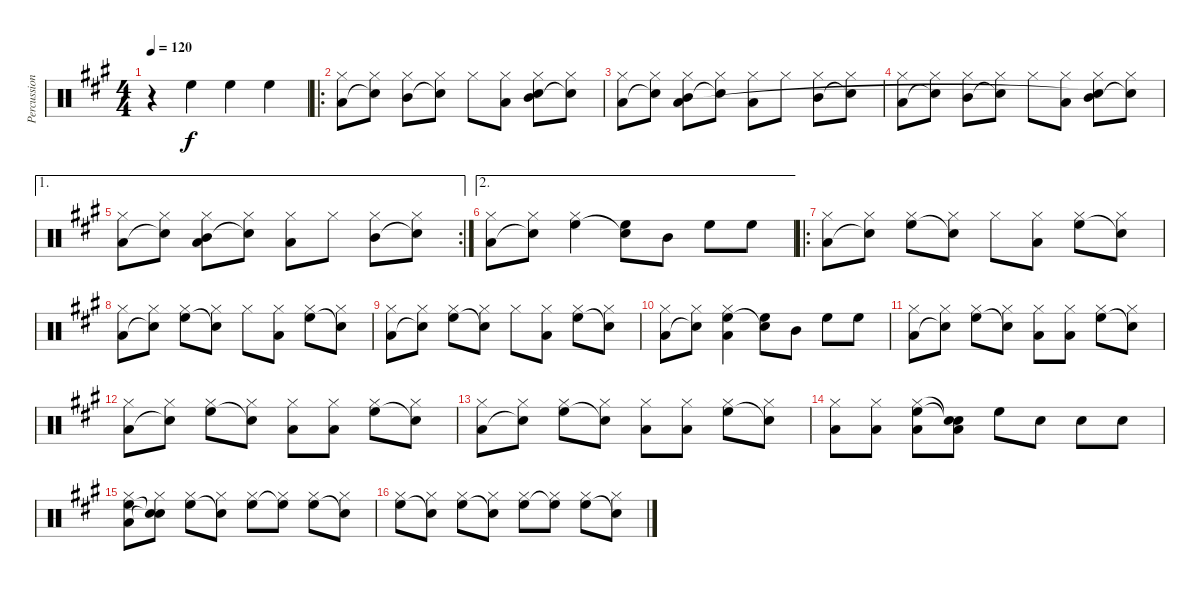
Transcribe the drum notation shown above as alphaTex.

\track ("Percussion" "Percussion") {instrument percussion}
\staff {score}
\articulation defaults
\ts (4 4)
\tempo 120
\clef neutral
\ks a
r.4{dy f} "High Floor Tom (hit)".4 "High Floor Tom (hit)".4 "High Floor Tom (hit)".4 |
\ro
("Hi-Hat (closed)" "Low Floor Tom (hit)").8 ("Hi-Hat (closed)" "Snare (hit)"{t}).8 ("Hi-Hat (closed)" "Mid Tom (hit)").8 ("Hi-Hat (closed)" "Snare (hit)"{t}).8 "Hi-Hat (closed)".8 ("Hi-Hat (closed)" "Low Floor Tom (hit)").8 ("Hi-Hat (closed)" "Mid Tom (hit)" "Snare (hit)").8 ("Hi-Hat (closed)" "Snare (hit)"{t}).8 |
("Hi-Hat (closed)" "Low Floor Tom (hit)").8 ("Hi-Hat (closed)" "Snare (hit)"{t}).8 ("Hi-Hat (closed)" "Mid Tom (hit)" "Low Floor Tom (hit)").8 ("Hi-Hat (closed)" "Snare (hit)"{t}).8 ("Hi-Hat (closed)" "Low Floor Tom (hit)").8 "Hi-Hat (closed)".8 ("Hi-Hat (closed)" "Mid Tom (hit)").8 ("Hi-Hat (closed)" "Snare (hit)"{t}).8 |
("Hi-Hat (closed)" "Low Floor Tom (hit)").8 ("Hi-Hat (closed)" "Snare (hit)"{t}).8 ("Hi-Hat (closed)" "Mid Tom (hit)").8 ("Hi-Hat (closed)" "Snare (hit)"{t}).8 "Hi-Hat (closed)".8 ("Hi-Hat (closed)" "Low Floor Tom (hit)").8 ("Hi-Hat (closed)" "Mid Tom (hit)" "Snare (hit)"{t}).8 ("Hi-Hat (closed)" "Snare (hit)"{t}).8 |
\ae 1
\rc 2
("Hi-Hat (closed)" "Low Floor Tom (hit)").8 ("Hi-Hat (closed)" "Snare (hit)"{t}).8 ("Hi-Hat (closed)" "Mid Tom (hit)" "Low Floor Tom (hit)").8 ("Hi-Hat (closed)" "Snare (hit)"{t}).8 ("Hi-Hat (closed)" "Low Floor Tom (hit)").8 "Hi-Hat (closed)".8 ("Hi-Hat (closed)" "Mid Tom (hit)").8 ("Hi-Hat (closed)" "Snare (hit)"{t}).8 |
\ae 2
("Hi-Hat (closed)" "Low Floor Tom (hit)").8 ("Hi-Hat (closed)" "Snare (hit)"{t}).8 ("Hi-Hat (closed)" "High Floor Tom (hit)").4 ("High Floor Tom (hit)" "Snare (hit)"{t}).8 "Mid Tom (hit)".8 "High Floor Tom (hit)".8 "High Floor Tom (hit)".8 |
\ro
("Hi-Hat (closed)" "Low Floor Tom (hit)").8 ("Hi-Hat (closed)" "Snare (hit)"{t}).8 ("Hi-Hat (closed)" "High Floor Tom (hit)").8 ("Hi-Hat (closed)" "Snare (hit)"{t}).8 "Hi-Hat (closed)".8 ("Hi-Hat (closed)" "Low Floor Tom (hit)").8 ("Hi-Hat (closed)" "High Floor Tom (hit)").8 ("Hi-Hat (closed)" "Snare (hit)"{t}).8 |
("Hi-Hat (closed)" "Low Floor Tom (hit)").8 ("Hi-Hat (closed)" "Snare (hit)"{t}).8 ("Hi-Hat (closed)" "High Floor Tom (hit)").8 ("Hi-Hat (closed)" "Snare (hit)"{t}).8 "Hi-Hat (closed)".8 ("Hi-Hat (closed)" "Low Floor Tom (hit)").8 ("Hi-Hat (closed)" "High Floor Tom (hit)").8 ("Hi-Hat (closed)" "Snare (hit)"{t}).8 |
("Hi-Hat (closed)" "Low Floor Tom (hit)").8 ("Hi-Hat (closed)" "Snare (hit)"{t}).8 ("Hi-Hat (closed)" "High Floor Tom (hit)").8 ("Hi-Hat (closed)" "Snare (hit)"{t}).8 "Hi-Hat (closed)".8 ("Hi-Hat (closed)" "Low Floor Tom (hit)").8 ("Hi-Hat (closed)" "High Floor Tom (hit)").8 ("Hi-Hat (closed)" "Snare (hit)"{t}).8 |
("Hi-Hat (closed)" "Low Floor Tom (hit)").8 ("Hi-Hat (closed)" "Snare (hit)"{t}).8 ("Hi-Hat (closed)" "High Floor Tom (hit)" "Low Floor Tom (hit)").4 ("High Floor Tom (hit)" "Snare (hit)"{t}).8 "Mid Tom (hit)".8 "High Floor Tom (hit)".8 "High Floor Tom (hit)".8 |
("Hi-Hat (closed)" "Low Floor Tom (hit)").8 ("Hi-Hat (closed)" "Snare (hit)"{t}).8 ("Hi-Hat (closed)" "High Floor Tom (hit)").8 ("Hi-Hat (closed)" "Snare (hit)"{t}).8 ("Hi-Hat (closed)" "Low Floor Tom (hit)").8 ("Hi-Hat (closed)" "Low Floor Tom (hit)").8 ("Hi-Hat (closed)" "High Floor Tom (hit)").8 ("Hi-Hat (closed)" "Snare (hit)"{t}).8 |
("Hi-Hat (closed)" "Low Floor Tom (hit)").8 ("Hi-Hat (closed)" "Snare (hit)"{t}).8 ("Hi-Hat (closed)" "High Floor Tom (hit)").8 ("Hi-Hat (closed)" "Snare (hit)"{t}).8 ("Hi-Hat (closed)" "Low Floor Tom (hit)").8 ("Hi-Hat (closed)" "Low Floor Tom (hit)").8 ("Hi-Hat (closed)" "High Floor Tom (hit)").8 ("Hi-Hat (closed)" "Snare (hit)"{t}).8 |
("Hi-Hat (closed)" "Low Floor Tom (hit)").8 ("Hi-Hat (closed)" "Snare (hit)"{t}).8 ("Hi-Hat (closed)" "High Floor Tom (hit)").8 ("Hi-Hat (closed)" "Snare (hit)"{t}).8 ("Hi-Hat (closed)" "Low Floor Tom (hit)").8 ("Hi-Hat (closed)" "Low Floor Tom (hit)").8 ("Hi-Hat (closed)" "High Floor Tom (hit)").8 ("Hi-Hat (closed)" "Snare (hit)"{t}).8 |
("Hi-Hat (closed)" "Low Floor Tom (hit)").8 ("Hi-Hat (closed)" "Low Floor Tom (hit)").8 ("Hi-Hat (closed)" "High Floor Tom (hit)" "Low Floor Tom (hit)").8 ("Snare (hit)"{t} "Snare (hit)"{t} "Low Floor Tom (hit)").8 "High Floor Tom (hit)".8 "Snare (hit) 2".8 "Snare (hit) 2".8 "Snare (hit) 2".8 |
("Hi-Hat (closed)" "High Floor Tom (hit)" "Low Floor Tom (hit)").8 ("Hi-Hat (closed)" "Snare (hit)"{t} "Snare (hit)"{t}).8 ("Hi-Hat (closed)" "High Floor Tom (hit)").8 ("Hi-Hat (closed)" "Snare (hit)"{t}).8 ("Hi-Hat (closed)" "High Floor Tom (hit)").8 ("Hi-Hat (closed)" "High Floor Tom (hit)"{t}).8 ("Hi-Hat (closed)" "High Floor Tom (hit)").8 ("Hi-Hat (closed)" "Snare (hit)"{t}).8 |
("Hi-Hat (closed)" "High Floor Tom (hit)").8 ("Hi-Hat (closed)" "Snare (hit)"{t}).8 ("Hi-Hat (closed)" "High Floor Tom (hit)").8 ("Hi-Hat (closed)" "Snare (hit)"{t}).8 ("Hi-Hat (closed)" "High Floor Tom (hit)").8 ("Hi-Hat (closed)" "High Floor Tom (hit)"{t}).8 ("Hi-Hat (closed)" "High Floor Tom (hit)").8 ("Hi-Hat (closed)" "Snare (hit)"{t}).8
